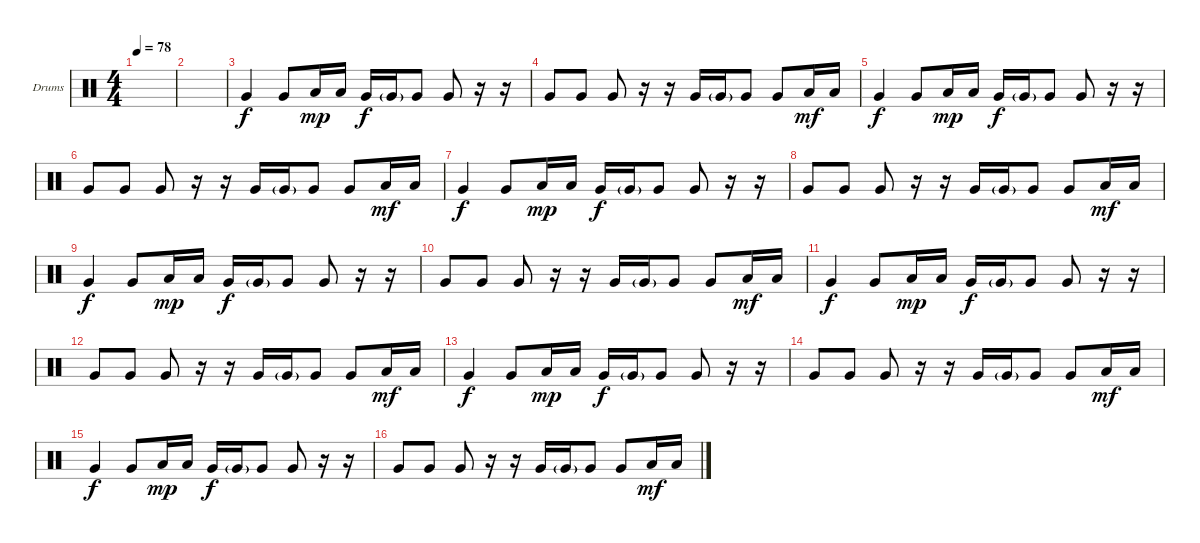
\defaultSystemsLayout 4
\bracketExtendMode groupsimilarinstruments
\firstSystemTrackNameOrientation horizontal
\otherSystemsTrackNameOrientation horizontal
\track ("Drumkit" "Drums") {instrument percussion}
\staff {score}
\articulation defaults
\ts (4 4)
\tempo 78
\clef neutral
\scale
0.333333
\ks c
|
\scale
0.333333 |
\scale
0.333333 "Very Low Tom (hit)".4 "Very Low Tom (hit)".8 "Low Tom (hit)".16{dy mp} "Low Tom (hit)".16 "Very Low Tom (hit)".16{dy f} "Very Low Tom (hit)"{g}.16 "Very Low Tom (hit)".8 "Very Low Tom (hit)".8 r.16 r.16 |
\scale
0.333333 "Very Low Tom (hit)".8 "Very Low Tom (hit)".8 "Very Low Tom (hit)".8 r.16 r.16 "Very Low Tom (hit)".16 "Very Low Tom (hit)"{g}.16 "Very Low Tom (hit)".8 "Very Low Tom (hit)".8 "Low Tom (hit)".16{dy mf} "Low Tom (hit)".16 |
\scale
0.333333 "Very Low Tom (hit)".4{dy f} "Very Low Tom (hit)".8 "Low Tom (hit)".16{dy mp} "Low Tom (hit)".16 "Very Low Tom (hit)".16{dy f} "Very Low Tom (hit)"{g}.16 "Very Low Tom (hit)".8 "Very Low Tom (hit)".8 r.16 r.16 |
\scale
0.333333 "Very Low Tom (hit)".8 "Very Low Tom (hit)".8 "Very Low Tom (hit)".8 r.16 r.16 "Very Low Tom (hit)".16 "Very Low Tom (hit)"{g}.16 "Very Low Tom (hit)".8 "Very Low Tom (hit)".8 "Low Tom (hit)".16{dy mf} "Low Tom (hit)".16 |
\scale
0.333333 "Very Low Tom (hit)".4{dy f} "Very Low Tom (hit)".8 "Low Tom (hit)".16{dy mp} "Low Tom (hit)".16 "Very Low Tom (hit)".16{dy f} "Very Low Tom (hit)"{g}.16 "Very Low Tom (hit)".8 "Very Low Tom (hit)".8 r.16 r.16 |
\scale
0.333333 "Very Low Tom (hit)".8 "Very Low Tom (hit)".8 "Very Low Tom (hit)".8 r.16 r.16 "Very Low Tom (hit)".16 "Very Low Tom (hit)"{g}.16 "Very Low Tom (hit)".8 "Very Low Tom (hit)".8 "Low Tom (hit)".16{dy mf} "Low Tom (hit)".16 |
\scale
0.333333 "Very Low Tom (hit)".4{dy f} "Very Low Tom (hit)".8 "Low Tom (hit)".16{dy mp} "Low Tom (hit)".16 "Very Low Tom (hit)".16{dy f} "Very Low Tom (hit)"{g}.16 "Very Low Tom (hit)".8 "Very Low Tom (hit)".8 r.16 r.16 |
\scale
0.333333 "Very Low Tom (hit)".8 "Very Low Tom (hit)".8 "Very Low Tom (hit)".8 r.16 r.16 "Very Low Tom (hit)".16 "Very Low Tom (hit)"{g}.16 "Very Low Tom (hit)".8 "Very Low Tom (hit)".8 "Low Tom (hit)".16{dy mf} "Low Tom (hit)".16 |
\scale
0.333333 "Very Low Tom (hit)".4{dy f} "Very Low Tom (hit)".8 "Low Tom (hit)".16{dy mp} "Low Tom (hit)".16 "Very Low Tom (hit)".16{dy f} "Very Low Tom (hit)"{g}.16 "Very Low Tom (hit)".8 "Very Low Tom (hit)".8 r.16 r.16 |
\scale
0.333333 "Very Low Tom (hit)".8 "Very Low Tom (hit)".8 "Very Low Tom (hit)".8 r.16 r.16 "Very Low Tom (hit)".16 "Very Low Tom (hit)"{g}.16 "Very Low Tom (hit)".8 "Very Low Tom (hit)".8 "Low Tom (hit)".16{dy mf} "Low Tom (hit)".16 |
\scale
0.333333 "Very Low Tom (hit)".4{dy f} "Very Low Tom (hit)".8 "Low Tom (hit)".16{dy mp} "Low Tom (hit)".16 "Very Low Tom (hit)".16{dy f} "Very Low Tom (hit)"{g}.16 "Very Low Tom (hit)".8 "Very Low Tom (hit)".8 r.16 r.16 |
\scale
0.333333 "Very Low Tom (hit)".8 "Very Low Tom (hit)".8 "Very Low Tom (hit)".8 r.16 r.16 "Very Low Tom (hit)".16 "Very Low Tom (hit)"{g}.16 "Very Low Tom (hit)".8 "Very Low Tom (hit)".8 "Low Tom (hit)".16{dy mf} "Low Tom (hit)".16 |
\scale
0.333333 "Very Low Tom (hit)".4{dy f} "Very Low Tom (hit)".8 "Low Tom (hit)".16{dy mp} "Low Tom (hit)".16 "Very Low Tom (hit)".16{dy f} "Very Low Tom (hit)"{g}.16 "Very Low Tom (hit)".8 "Very Low Tom (hit)".8 r.16 r.16 |
\scale
0.333333 "Very Low Tom (hit)".8 "Very Low Tom (hit)".8 "Very Low Tom (hit)".8 r.16 r.16 "Very Low Tom (hit)".16 "Very Low Tom (hit)"{g}.16 "Very Low Tom (hit)".8 "Very Low Tom (hit)".8 "Low Tom (hit)".16{dy mf} "Low Tom (hit)".16
